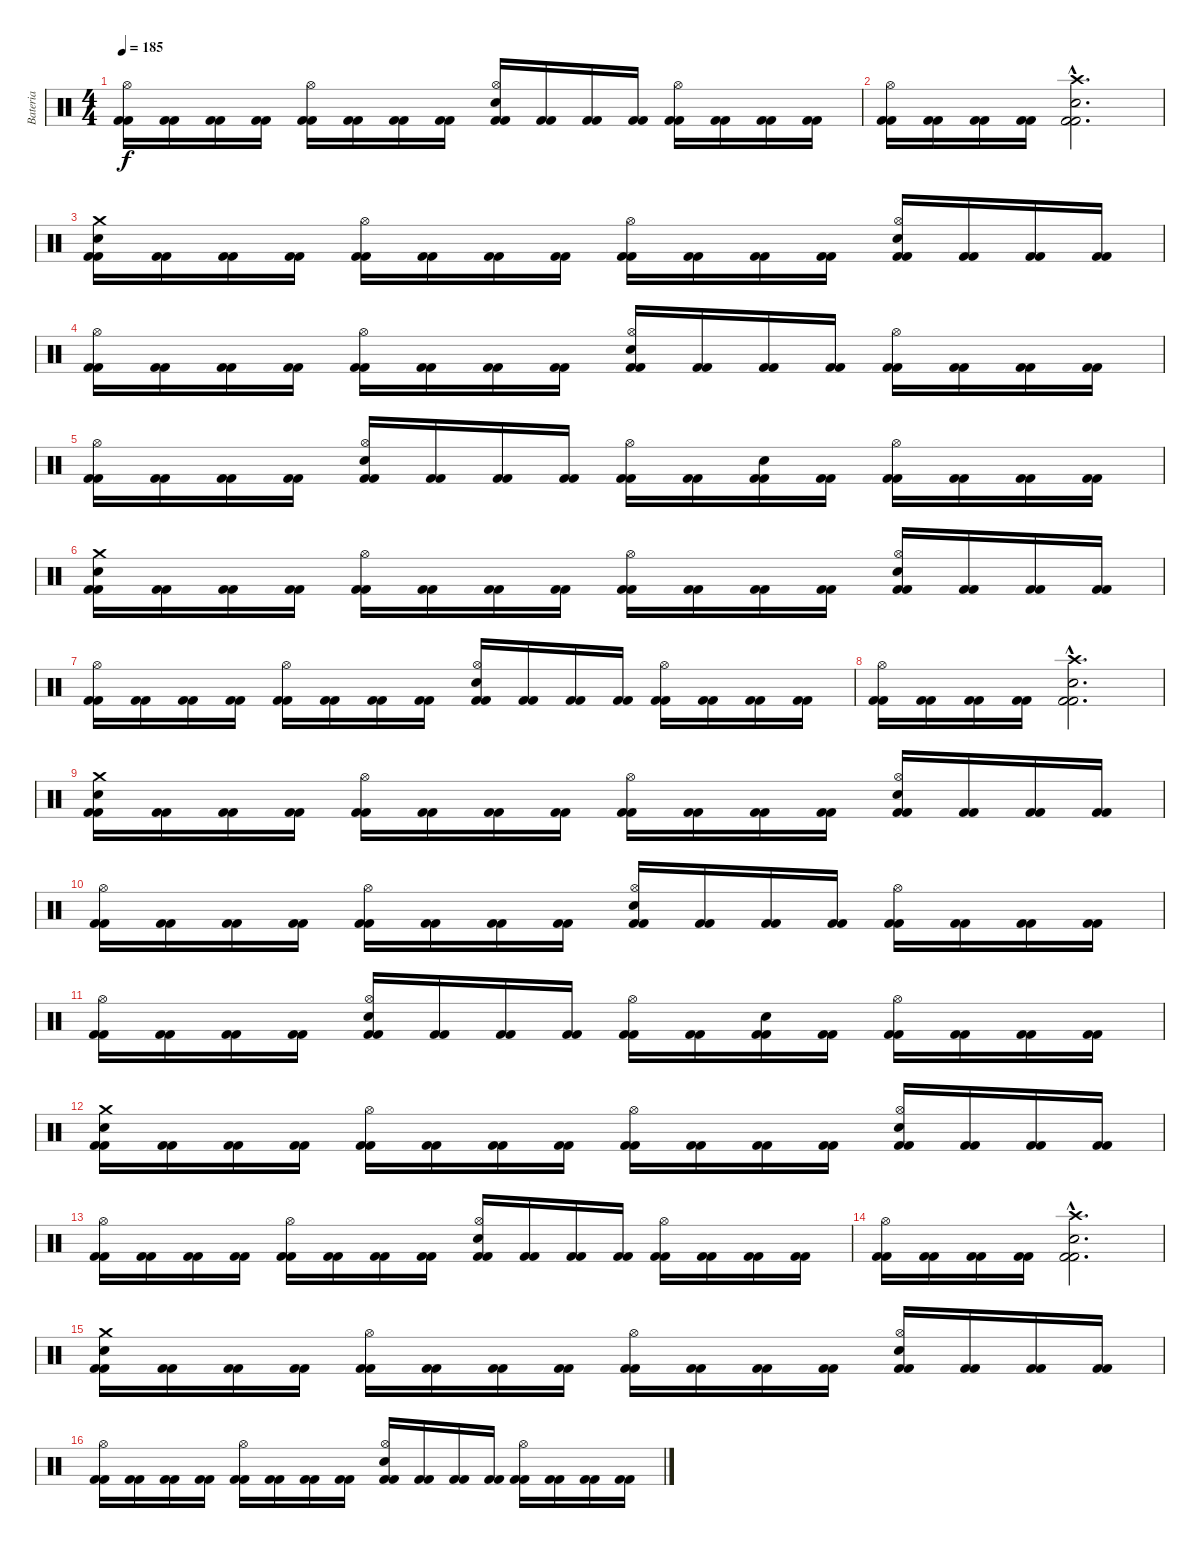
\track ("Bateria" "Bateria") {instrument percussion}
\staff {score}
\articulation defaults
\ts (4 4)
\tempo 185
\clef neutral
\ks c
("Kick (hit) 2" "Kick (hit) 2" "Hi-Hat (open)").16{dy f} ("Kick (hit) 2" "Kick (hit) 2").16 ("Kick (hit) 2" "Kick (hit) 2").16 ("Kick (hit) 2" "Kick (hit) 2").16 ("Kick (hit) 2" "Kick (hit) 2" "Hi-Hat (open)").16 ("Kick (hit) 2" "Kick (hit) 2").16 ("Kick (hit) 2" "Kick (hit) 2").16 ("Kick (hit) 2" "Kick (hit) 2").16 ("Kick (hit) 2" "Kick (hit) 2" "Electric Snare (hit)" "Hi-Hat (open)").16 ("Kick (hit) 2" "Kick (hit) 2").16 ("Kick (hit) 2" "Kick (hit) 2").16 ("Kick (hit) 2" "Kick (hit) 2").16 ("Kick (hit) 2" "Kick (hit) 2" "Hi-Hat (open)").16 ("Kick (hit) 2" "Kick (hit) 2").16 ("Kick (hit) 2" "Kick (hit) 2").16 ("Kick (hit) 2" "Kick (hit) 2").16 |
("Kick (hit) 2" "Kick (hit) 2" "Hi-Hat (open)").16 ("Kick (hit) 2" "Kick (hit) 2").16 ("Kick (hit) 2" "Kick (hit) 2").16 ("Kick (hit) 2" "Kick (hit) 2").16 ("Kick (hit) 2"{hac} "Kick (hit) 2"{hac} "Electric Snare (hit)"{hac} "Crash high (hit)"{hac}).2{d} |
("Kick (hit) 2" "Kick (hit) 2" "Electric Snare (hit)" "Crash medium (hit)").16 ("Kick (hit) 2" "Kick (hit) 2").16 ("Kick (hit) 2" "Kick (hit) 2").16 ("Kick (hit) 2" "Kick (hit) 2").16 ("Kick (hit) 2" "Kick (hit) 2" "Hi-Hat (open)").16 ("Kick (hit) 2" "Kick (hit) 2").16 ("Kick (hit) 2" "Kick (hit) 2").16 ("Kick (hit) 2" "Kick (hit) 2").16 ("Kick (hit) 2" "Kick (hit) 2" "Hi-Hat (open)").16 ("Kick (hit) 2" "Kick (hit) 2").16 ("Kick (hit) 2" "Kick (hit) 2").16 ("Kick (hit) 2" "Kick (hit) 2").16 ("Kick (hit) 2" "Kick (hit) 2" "Electric Snare (hit)" "Hi-Hat (open)").16 ("Kick (hit) 2" "Kick (hit) 2").16 ("Kick (hit) 2" "Kick (hit) 2").16 ("Kick (hit) 2" "Kick (hit) 2").16 |
("Kick (hit) 2" "Kick (hit) 2" "Hi-Hat (open)").16 ("Kick (hit) 2" "Kick (hit) 2").16 ("Kick (hit) 2" "Kick (hit) 2").16 ("Kick (hit) 2" "Kick (hit) 2").16 ("Kick (hit) 2" "Kick (hit) 2" "Hi-Hat (open)").16 ("Kick (hit) 2" "Kick (hit) 2").16 ("Kick (hit) 2" "Kick (hit) 2").16 ("Kick (hit) 2" "Kick (hit) 2").16 ("Kick (hit) 2" "Kick (hit) 2" "Electric Snare (hit)" "Hi-Hat (open)").16 ("Kick (hit) 2" "Kick (hit) 2").16 ("Kick (hit) 2" "Kick (hit) 2").16 ("Kick (hit) 2" "Kick (hit) 2").16 ("Kick (hit) 2" "Kick (hit) 2" "Hi-Hat (open)").16 ("Kick (hit) 2" "Kick (hit) 2").16 ("Kick (hit) 2" "Kick (hit) 2").16 ("Kick (hit) 2" "Kick (hit) 2").16 |
("Kick (hit) 2" "Kick (hit) 2" "Hi-Hat (open)").16 ("Kick (hit) 2" "Kick (hit) 2").16 ("Kick (hit) 2" "Kick (hit) 2").16 ("Kick (hit) 2" "Kick (hit) 2").16 ("Kick (hit) 2" "Kick (hit) 2" "Electric Snare (hit)" "Hi-Hat (open)").16 ("Kick (hit) 2" "Kick (hit) 2").16 ("Kick (hit) 2" "Kick (hit) 2").16 ("Kick (hit) 2" "Kick (hit) 2").16 ("Kick (hit) 2" "Kick (hit) 2" "Hi-Hat (open)").16 ("Kick (hit) 2" "Kick (hit) 2").16 ("Kick (hit) 2" "Kick (hit) 2" "Electric Snare (hit)").16 ("Kick (hit) 2" "Kick (hit) 2").16 ("Kick (hit) 2" "Kick (hit) 2" "Hi-Hat (open)").16 ("Kick (hit) 2" "Kick (hit) 2").16 ("Kick (hit) 2" "Kick (hit) 2").16 ("Kick (hit) 2" "Kick (hit) 2").16 |
("Kick (hit) 2" "Kick (hit) 2" "Electric Snare (hit)" "Crash medium (hit)").16 ("Kick (hit) 2" "Kick (hit) 2").16 ("Kick (hit) 2" "Kick (hit) 2").16 ("Kick (hit) 2" "Kick (hit) 2").16 ("Kick (hit) 2" "Kick (hit) 2" "Hi-Hat (open)").16 ("Kick (hit) 2" "Kick (hit) 2").16 ("Kick (hit) 2" "Kick (hit) 2").16 ("Kick (hit) 2" "Kick (hit) 2").16 ("Kick (hit) 2" "Kick (hit) 2" "Hi-Hat (open)").16 ("Kick (hit) 2" "Kick (hit) 2").16 ("Kick (hit) 2" "Kick (hit) 2").16 ("Kick (hit) 2" "Kick (hit) 2").16 ("Kick (hit) 2" "Kick (hit) 2" "Electric Snare (hit)" "Hi-Hat (open)").16 ("Kick (hit) 2" "Kick (hit) 2").16 ("Kick (hit) 2" "Kick (hit) 2").16 ("Kick (hit) 2" "Kick (hit) 2").16 |
("Kick (hit) 2" "Kick (hit) 2" "Hi-Hat (open)").16 ("Kick (hit) 2" "Kick (hit) 2").16 ("Kick (hit) 2" "Kick (hit) 2").16 ("Kick (hit) 2" "Kick (hit) 2").16 ("Kick (hit) 2" "Kick (hit) 2" "Hi-Hat (open)").16 ("Kick (hit) 2" "Kick (hit) 2").16 ("Kick (hit) 2" "Kick (hit) 2").16 ("Kick (hit) 2" "Kick (hit) 2").16 ("Kick (hit) 2" "Kick (hit) 2" "Electric Snare (hit)" "Hi-Hat (open)").16 ("Kick (hit) 2" "Kick (hit) 2").16 ("Kick (hit) 2" "Kick (hit) 2").16 ("Kick (hit) 2" "Kick (hit) 2").16 ("Kick (hit) 2" "Kick (hit) 2" "Hi-Hat (open)").16 ("Kick (hit) 2" "Kick (hit) 2").16 ("Kick (hit) 2" "Kick (hit) 2").16 ("Kick (hit) 2" "Kick (hit) 2").16 |
("Kick (hit) 2" "Kick (hit) 2" "Hi-Hat (open)").16 ("Kick (hit) 2" "Kick (hit) 2").16 ("Kick (hit) 2" "Kick (hit) 2").16 ("Kick (hit) 2" "Kick (hit) 2").16 ("Kick (hit) 2"{hac} "Kick (hit) 2"{hac} "Electric Snare (hit)"{hac} "Crash high (hit)"{hac}).2{d} |
("Kick (hit) 2" "Kick (hit) 2" "Electric Snare (hit)" "Crash medium (hit)").16 ("Kick (hit) 2" "Kick (hit) 2").16 ("Kick (hit) 2" "Kick (hit) 2").16 ("Kick (hit) 2" "Kick (hit) 2").16 ("Kick (hit) 2" "Kick (hit) 2" "Hi-Hat (open)").16 ("Kick (hit) 2" "Kick (hit) 2").16 ("Kick (hit) 2" "Kick (hit) 2").16 ("Kick (hit) 2" "Kick (hit) 2").16 ("Kick (hit) 2" "Kick (hit) 2" "Hi-Hat (open)").16 ("Kick (hit) 2" "Kick (hit) 2").16 ("Kick (hit) 2" "Kick (hit) 2").16 ("Kick (hit) 2" "Kick (hit) 2").16 ("Kick (hit) 2" "Kick (hit) 2" "Electric Snare (hit)" "Hi-Hat (open)").16 ("Kick (hit) 2" "Kick (hit) 2").16 ("Kick (hit) 2" "Kick (hit) 2").16 ("Kick (hit) 2" "Kick (hit) 2").16 |
("Kick (hit) 2" "Kick (hit) 2" "Hi-Hat (open)").16 ("Kick (hit) 2" "Kick (hit) 2").16 ("Kick (hit) 2" "Kick (hit) 2").16 ("Kick (hit) 2" "Kick (hit) 2").16 ("Kick (hit) 2" "Kick (hit) 2" "Hi-Hat (open)").16 ("Kick (hit) 2" "Kick (hit) 2").16 ("Kick (hit) 2" "Kick (hit) 2").16 ("Kick (hit) 2" "Kick (hit) 2").16 ("Kick (hit) 2" "Kick (hit) 2" "Electric Snare (hit)" "Hi-Hat (open)").16 ("Kick (hit) 2" "Kick (hit) 2").16 ("Kick (hit) 2" "Kick (hit) 2").16 ("Kick (hit) 2" "Kick (hit) 2").16 ("Kick (hit) 2" "Kick (hit) 2" "Hi-Hat (open)").16 ("Kick (hit) 2" "Kick (hit) 2").16 ("Kick (hit) 2" "Kick (hit) 2").16 ("Kick (hit) 2" "Kick (hit) 2").16 |
("Kick (hit) 2" "Kick (hit) 2" "Hi-Hat (open)").16 ("Kick (hit) 2" "Kick (hit) 2").16 ("Kick (hit) 2" "Kick (hit) 2").16 ("Kick (hit) 2" "Kick (hit) 2").16 ("Kick (hit) 2" "Kick (hit) 2" "Electric Snare (hit)" "Hi-Hat (open)").16 ("Kick (hit) 2" "Kick (hit) 2").16 ("Kick (hit) 2" "Kick (hit) 2").16 ("Kick (hit) 2" "Kick (hit) 2").16 ("Kick (hit) 2" "Kick (hit) 2" "Hi-Hat (open)").16 ("Kick (hit) 2" "Kick (hit) 2").16 ("Kick (hit) 2" "Kick (hit) 2" "Electric Snare (hit)").16 ("Kick (hit) 2" "Kick (hit) 2").16 ("Kick (hit) 2" "Kick (hit) 2" "Hi-Hat (open)").16 ("Kick (hit) 2" "Kick (hit) 2").16 ("Kick (hit) 2" "Kick (hit) 2").16 ("Kick (hit) 2" "Kick (hit) 2").16 |
("Kick (hit) 2" "Kick (hit) 2" "Electric Snare (hit)" "Crash medium (hit)").16 ("Kick (hit) 2" "Kick (hit) 2").16 ("Kick (hit) 2" "Kick (hit) 2").16 ("Kick (hit) 2" "Kick (hit) 2").16 ("Kick (hit) 2" "Kick (hit) 2" "Hi-Hat (open)").16 ("Kick (hit) 2" "Kick (hit) 2").16 ("Kick (hit) 2" "Kick (hit) 2").16 ("Kick (hit) 2" "Kick (hit) 2").16 ("Kick (hit) 2" "Kick (hit) 2" "Hi-Hat (open)").16 ("Kick (hit) 2" "Kick (hit) 2").16 ("Kick (hit) 2" "Kick (hit) 2").16 ("Kick (hit) 2" "Kick (hit) 2").16 ("Kick (hit) 2" "Kick (hit) 2" "Electric Snare (hit)" "Hi-Hat (open)").16 ("Kick (hit) 2" "Kick (hit) 2").16 ("Kick (hit) 2" "Kick (hit) 2").16 ("Kick (hit) 2" "Kick (hit) 2").16 |
("Kick (hit) 2" "Kick (hit) 2" "Hi-Hat (open)").16 ("Kick (hit) 2" "Kick (hit) 2").16 ("Kick (hit) 2" "Kick (hit) 2").16 ("Kick (hit) 2" "Kick (hit) 2").16 ("Kick (hit) 2" "Kick (hit) 2" "Hi-Hat (open)").16 ("Kick (hit) 2" "Kick (hit) 2").16 ("Kick (hit) 2" "Kick (hit) 2").16 ("Kick (hit) 2" "Kick (hit) 2").16 ("Kick (hit) 2" "Kick (hit) 2" "Electric Snare (hit)" "Hi-Hat (open)").16 ("Kick (hit) 2" "Kick (hit) 2").16 ("Kick (hit) 2" "Kick (hit) 2").16 ("Kick (hit) 2" "Kick (hit) 2").16 ("Kick (hit) 2" "Kick (hit) 2" "Hi-Hat (open)").16 ("Kick (hit) 2" "Kick (hit) 2").16 ("Kick (hit) 2" "Kick (hit) 2").16 ("Kick (hit) 2" "Kick (hit) 2").16 |
("Kick (hit) 2" "Kick (hit) 2" "Hi-Hat (open)").16 ("Kick (hit) 2" "Kick (hit) 2").16 ("Kick (hit) 2" "Kick (hit) 2").16 ("Kick (hit) 2" "Kick (hit) 2").16 ("Kick (hit) 2"{hac} "Kick (hit) 2"{hac} "Electric Snare (hit)"{hac} "Crash high (hit)"{hac}).2{d} |
("Kick (hit) 2" "Kick (hit) 2" "Electric Snare (hit)" "Crash medium (hit)").16 ("Kick (hit) 2" "Kick (hit) 2").16 ("Kick (hit) 2" "Kick (hit) 2").16 ("Kick (hit) 2" "Kick (hit) 2").16 ("Kick (hit) 2" "Kick (hit) 2" "Hi-Hat (open)").16 ("Kick (hit) 2" "Kick (hit) 2").16 ("Kick (hit) 2" "Kick (hit) 2").16 ("Kick (hit) 2" "Kick (hit) 2").16 ("Kick (hit) 2" "Kick (hit) 2" "Hi-Hat (open)").16 ("Kick (hit) 2" "Kick (hit) 2").16 ("Kick (hit) 2" "Kick (hit) 2").16 ("Kick (hit) 2" "Kick (hit) 2").16 ("Kick (hit) 2" "Kick (hit) 2" "Electric Snare (hit)" "Hi-Hat (open)").16 ("Kick (hit) 2" "Kick (hit) 2").16 ("Kick (hit) 2" "Kick (hit) 2").16 ("Kick (hit) 2" "Kick (hit) 2").16 |
("Kick (hit) 2" "Kick (hit) 2" "Hi-Hat (open)").16 ("Kick (hit) 2" "Kick (hit) 2").16 ("Kick (hit) 2" "Kick (hit) 2").16 ("Kick (hit) 2" "Kick (hit) 2").16 ("Kick (hit) 2" "Kick (hit) 2" "Hi-Hat (open)").16 ("Kick (hit) 2" "Kick (hit) 2").16 ("Kick (hit) 2" "Kick (hit) 2").16 ("Kick (hit) 2" "Kick (hit) 2").16 ("Kick (hit) 2" "Kick (hit) 2" "Electric Snare (hit)" "Hi-Hat (open)").16 ("Kick (hit) 2" "Kick (hit) 2").16 ("Kick (hit) 2" "Kick (hit) 2").16 ("Kick (hit) 2" "Kick (hit) 2").16 ("Kick (hit) 2" "Kick (hit) 2" "Hi-Hat (open)").16 ("Kick (hit) 2" "Kick (hit) 2").16 ("Kick (hit) 2" "Kick (hit) 2").16 ("Kick (hit) 2" "Kick (hit) 2").16
